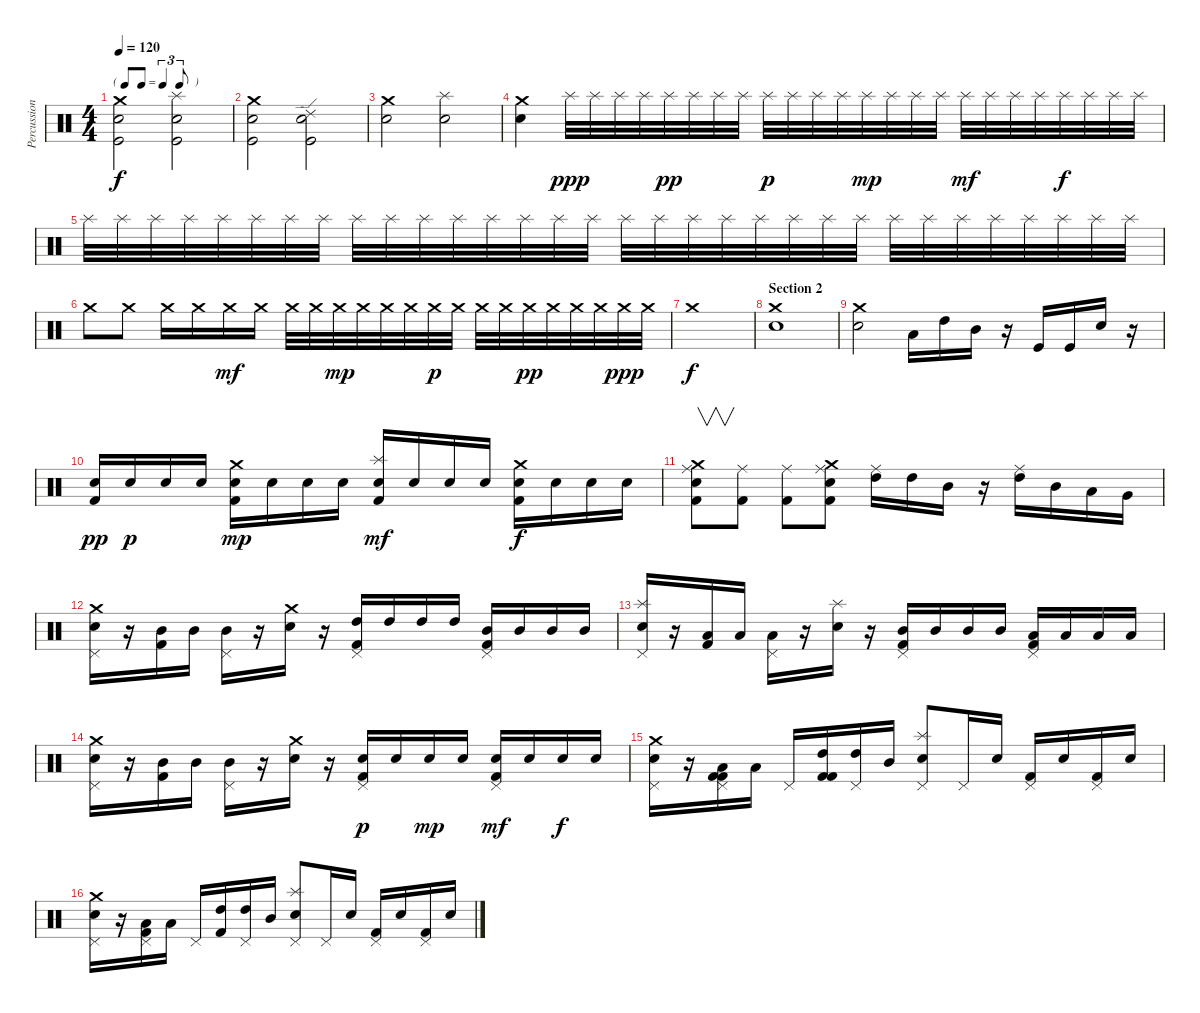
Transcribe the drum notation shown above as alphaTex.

\track ("Percussions" "Percussion") {instrument percussion}
\staff {score}
\articulation defaults
\ts (4 4)
\tf triplet8th
\tempo 120
\clef neutral
\ks c
("Crash medium (hit)" "Electric Snare (hit)" "Kick (hit)").2{dy f} ("Splash (hit)" "Electric Snare (hit)" "Kick (hit)").2 |
("Crash medium (hit)" "Electric Snare (hit)" "Kick (hit)").2 ("Ride (edge) 2" "Electric Snare (hit)" "Kick (hit)").2 |
("Crash medium (hit)" "Electric Snare (hit)").2 ("Splash (hit)" "Electric Snare (hit)").2 |
("Crash medium (hit)" "Electric Snare (hit)").4 "Splash (hit)".32{dy ppp} "Splash (hit)".32 "Splash (hit)".32 "Splash (hit)".32 "Splash (hit)".32{dy pp} "Splash (hit)".32 "Splash (hit)".32 "Splash (hit)".32 "Splash (hit)".32{dy p} "Splash (hit)".32 "Splash (hit)".32 "Splash (hit)".32 "Splash (hit)".32{dy mp} "Splash (hit)".32 "Splash (hit)".32 "Splash (hit)".32 "Splash (hit)".32{dy mf} "Splash (hit)".32 "Splash (hit)".32 "Splash (hit)".32 "Splash (hit)".32{dy f} "Splash (hit)".32 "Splash (hit)".32 "Splash (hit)".32 |
"Splash (hit)".32 "Splash (hit)".32 "Splash (hit)".32 "Splash (hit)".32 "Splash (hit)".32 "Splash (hit)".32 "Splash (hit)".32 "Splash (hit)".32 "Splash (hit)".32 "Splash (hit)".32 "Splash (hit)".32 "Splash (hit)".32 "Splash (hit)".32 "Splash (hit)".32 "Splash (hit)".32 "Splash (hit)".32 "Splash (hit)".32 "Splash (hit)".32 "Splash (hit)".32 "Splash (hit)".32 "Splash (hit)".32 "Splash (hit)".32 "Splash (hit)".32 "Splash (hit)".32 "Splash (hit)".32 "Splash (hit)".32 "Splash (hit)".32 "Splash (hit)".32 "Splash (hit)".32 "Splash (hit)".32 "Splash (hit)".32 "Splash (hit)".32 |
"Crash medium (hit)".8 "Crash medium (hit)".8 "Crash medium (hit)".16 "Crash medium (hit)".16 "Crash medium (hit)".16{dy mf} "Crash medium (hit)".16 "Crash medium (hit)".32 "Crash medium (hit)".32 "Crash medium (hit)".32{dy mp} "Crash medium (hit)".32 "Crash medium (hit)".32 "Crash medium (hit)".32 "Crash medium (hit)".32{dy p} "Crash medium (hit)".32 "Crash medium (hit)".32 "Crash medium (hit)".32 "Crash medium (hit)".32{dy pp} "Crash medium (hit)".32 "Crash medium (hit)".32 "Crash medium (hit)".32 "Crash medium (hit)".32{dy ppp} "Crash medium (hit)".32 |
"Crash medium (hit)".1{dy f} |
\section ("" "Section 2")
("Electric Snare (hit)" "Crash medium (hit)").1 |
("Electric Snare (hit)" "Crash medium (hit)").2 "Low Tom (hit)".16 "High Tom (hit)".16 "Mid Tom (hit)".16 r.16 "Kick (hit)".16 "Kick (hit)".16 "Electric Snare (hit)".16 r.16 |
("Electric Snare (hit)" "Kick (hit) 2").16{dy pp} "Electric Snare (hit)".16{dy p} "Electric Snare (hit)".16 "Electric Snare (hit)".16 ("Electric Snare (hit)" "Kick (hit) 2" "Crash medium (hit)").16{dy mp} "Electric Snare (hit)".16 "Electric Snare (hit)".16 "Electric Snare (hit)".16 ("Electric Snare (hit)" "Kick (hit) 2" "Splash (hit)").16{dy mf} "Electric Snare (hit)".16 "Electric Snare (hit)".16 "Electric Snare (hit)".16 ("Electric Snare (hit)" "Kick (hit) 2" "Crash medium (hit)").16{dy f} "Electric Snare (hit)".16 "Electric Snare (hit)".16 "Electric Snare (hit)".16 |
("Electric Snare (hit)" "Crash medium (hit)" "Kick (hit) 2" "Ride (middle)").8{v} ("Kick (hit) 2" "Ride (middle)").8 ("Kick (hit) 2" "Ride (middle)").8 ("Electric Snare (hit)" "Crash medium (hit)" "Kick (hit) 2" "Ride (middle)").8 ("High Tom (hit)" "Ride (middle)").16 "High Tom (hit)".16 "Mid Tom (hit)".16 r.16 ("High Tom (hit)" "Ride (middle)").16 "Mid Tom (hit)".16 "Low Tom (hit)".16 "Very Low Tom (hit)".16 |
("Electric Snare (hit)" "Crash medium (hit)" "Pedal Hi-Hat (hit)").16 r.16 ("Kick (hit) 2" "Mid Tom (hit)").16 "Mid Tom (hit)".16 ("Mid Tom (hit)" "Pedal Hi-Hat (hit)").16 r.16 ("Electric Snare (hit)" "Crash medium (hit)").16 r.16 ("Kick (hit) 2" "High Tom (hit)" "Pedal Hi-Hat (hit)").16 "High Tom (hit)".16 "High Tom (hit)".16 "High Tom (hit)".16 ("Kick (hit) 2" "Mid Tom (hit)" "Pedal Hi-Hat (hit)").16 "Mid Tom (hit)".16 "Mid Tom (hit)".16 "Mid Tom (hit)".16 |
("Electric Snare (hit)" "Splash (hit)" "Pedal Hi-Hat (hit)").16 r.16 ("Kick (hit) 2" "Low Tom (hit)").16 "Low Tom (hit)".16 ("Low Tom (hit)" "Pedal Hi-Hat (hit)").16 r.16 ("Electric Snare (hit)" "Splash (hit)").16 r.16 ("Kick (hit) 2" "Mid Tom (hit)" "Pedal Hi-Hat (hit)").16 "Mid Tom (hit)".16 "Mid Tom (hit)".16 "Mid Tom (hit)".16 ("Kick (hit) 2" "Low Tom (hit)" "Pedal Hi-Hat (hit)").16 "Low Tom (hit)".16 "Low Tom (hit)".16 "Low Tom (hit)".16 |
("Electric Snare (hit)" "Crash medium (hit)" "Pedal Hi-Hat (hit)").16 r.16 ("Kick (hit) 2" "Mid Tom (hit)").16 "Mid Tom (hit)".16 ("Mid Tom (hit)" "Pedal Hi-Hat (hit)").16 r.16 ("Electric Snare (hit)" "Crash medium (hit)").16 r.16 ("Electric Snare (hit)" "Kick (hit) 2" "Pedal Hi-Hat (hit)").16{dy p} "Electric Snare (hit)".16 "Electric Snare (hit)".16{dy mp} "Electric Snare (hit)".16 ("Electric Snare (hit)" "Kick (hit) 2" "Pedal Hi-Hat (hit)").16{dy mf} "Electric Snare (hit)".16 "Electric Snare (hit)".16{dy f} "Electric Snare (hit)".16 |
("Electric Snare (hit)" "Crash medium (hit)" "Pedal Hi-Hat (hit)").16 r.16 ("Kick (hit) 2" "Low Tom (hit)" "Kick (hit) 2" "Pedal Hi-Hat (hit)").16 "Low Tom (hit)".16 "Pedal Hi-Hat (hit)".16 ("Kick (hit) 2" "High Tom (hit)" "Kick (hit) 2").16 ("High Tom (hit)" "Pedal Hi-Hat (hit)").16 "Mid Tom (hit)".16 ("Electric Snare (hit)" "Splash (hit)" "Pedal Hi-Hat (hit)").8 "Pedal Hi-Hat (hit)".16 "Electric Snare (hit)".16 ("Kick (hit) 2" "Pedal Hi-Hat (hit)").16 "Electric Snare (hit)".16 ("Kick (hit) 2" "Pedal Hi-Hat (hit)").16 "Snare (hit) 2".16 |
("Electric Snare (hit)" "Crash medium (hit)" "Pedal Hi-Hat (hit)").16 r.16 ("Kick (hit) 2" "Low Tom (hit)" "Pedal Hi-Hat (hit)").16 "Low Tom (hit)".16 "Pedal Hi-Hat (hit)".16 ("Kick (hit) 2" "High Tom (hit)").16 ("High Tom (hit)" "Pedal Hi-Hat (hit)").16 "Mid Tom (hit)".16 ("Electric Snare (hit)" "Splash (hit)" "Pedal Hi-Hat (hit)").8 "Pedal Hi-Hat (hit)".16 "Electric Snare (hit)".16 ("Kick (hit) 2" "Pedal Hi-Hat (hit)").16 "Electric Snare (hit)".16 ("Kick (hit) 2" "Pedal Hi-Hat (hit)").16 "Snare (hit) 2".16
